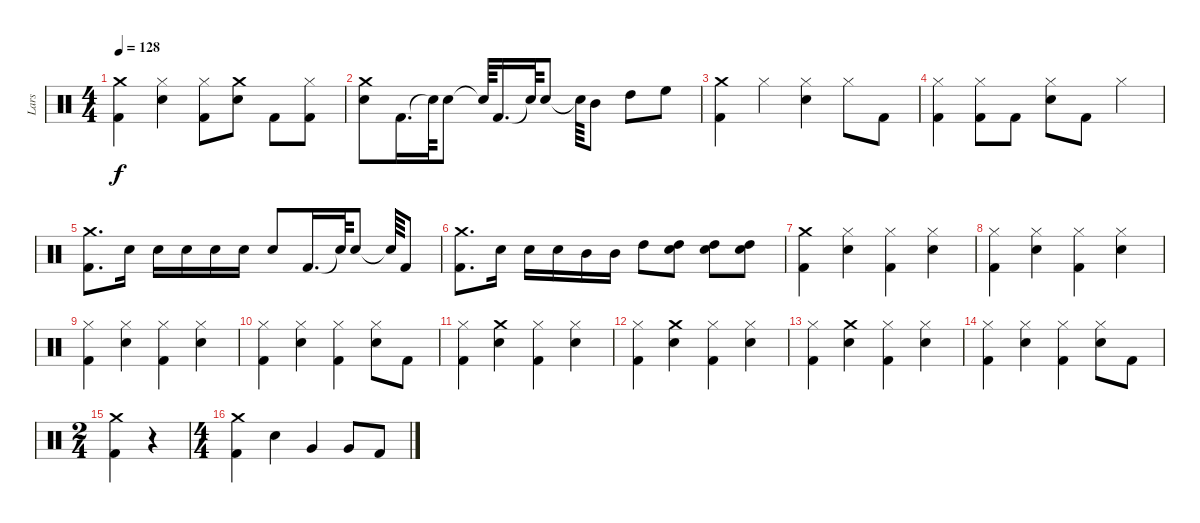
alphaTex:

\track ("Lars" "Lars") {instrument percussion}
\staff {score}
\articulation defaults
\ts (4 4)
\tempo 128
\clef neutral
\ks c
("Crash medium (hit)" "Kick (hit) 2").4{dy f} ("Snare (hit) 2" "Hi-Hat (closed)").4 ("Kick (hit) 2" "Hi-Hat (closed)").8 ("Crash medium (hit)" "Snare (hit) 2").8 "Kick (hit) 2".8 ("Hi-Hat (closed)" "Kick (hit) 2").8 |
("Crash medium (hit)" "Snare (hit) 2").8 "Kick (hit) 2".16{d} "Snare (hit)"{t}.64 "Snare (hit) 2".8 "Snare (hit)"{t}.64 "Kick (hit) 2".16{d} "Snare (hit)"{t}.64 "Snare (hit) 2".8 "Snare (hit)"{t}.64 "Mid Tom (hit)".8 "High Tom (hit)".8 "High Floor Tom (hit)".8 |
("Kick (hit) 2" "Crash medium (hit)").4 "Hi-Hat (closed)".4 ("Snare (hit) 2" "Hi-Hat (closed)").4 "Hi-Hat (closed)".8 "Kick (hit) 2".8 |
("Kick (hit) 2" "Hi-Hat (closed)").4 ("Kick (hit) 2" "Hi-Hat (closed)").8 "Kick (hit) 2".8 ("Snare (hit) 2" "Hi-Hat (closed)").8 "Kick (hit) 2".8 "Hi-Hat (closed)".4 |
("Kick (hit) 2" "Crash medium (hit)").8{d} "Snare (hit) 2".16 "Snare (hit) 2".16 "Snare (hit) 2".16 "Snare (hit) 2".16 "Snare (hit) 2".16 "Snare (hit) 2".8 "Kick (hit) 2".16{d} "Snare (hit)"{t}.64 "Snare (hit) 2".8 "Snare (hit)"{t}.64 "Kick (hit) 2".8 |
("Kick (hit) 2" "Crash medium (hit)").8{d} "Snare (hit) 2".16 "Snare (hit) 2".16 "Snare (hit) 2".16 "Mid Tom (hit)".16 "Mid Tom (hit)".16 "High Tom (hit)".8 ("Snare (hit) 2" "High Tom (hit)").8 ("Snare (hit) 2" "High Tom (hit)").8 ("Snare (hit) 2" "High Tom (hit)").8 |
("Kick (hit) 2" "Crash medium (hit)").4 ("Hi-Hat (closed)" "Snare (hit) 2").4 ("Hi-Hat (closed)" "Kick (hit) 2").4 ("Snare (hit) 2" "Hi-Hat (closed)").4 |
("Hi-Hat (closed)" "Kick (hit) 2").4 ("Snare (hit) 2" "Hi-Hat (closed)").4 ("Kick (hit) 2" "Hi-Hat (closed)").4 ("Snare (hit) 2" "Hi-Hat (closed)").4 |
("Hi-Hat (closed)" "Kick (hit) 2").4 ("Snare (hit) 2" "Hi-Hat (closed)").4 ("Kick (hit) 2" "Hi-Hat (closed)").4 ("Snare (hit) 2" "Hi-Hat (closed)").4 |
("Kick (hit) 2" "Hi-Hat (closed)").4 ("Snare (hit) 2" "Hi-Hat (closed)").4 ("Kick (hit) 2" "Hi-Hat (closed)").4 ("Snare (hit) 2" "Hi-Hat (closed)").8 "Kick (hit) 2".8 |
("Kick (hit) 2" "Hi-Hat (closed)").4 ("Crash medium (hit)" "Snare (hit) 2").4 ("Hi-Hat (closed)" "Kick (hit) 2").4 ("Snare (hit) 2" "Hi-Hat (closed)").4 |
("Kick (hit) 2" "Hi-Hat (closed)").4 ("Crash medium (hit)" "Snare (hit) 2").4 ("Hi-Hat (closed)" "Kick (hit) 2").4 ("Snare (hit) 2" "Hi-Hat (closed)").4 |
("Kick (hit) 2" "Hi-Hat (closed)").4 ("Crash medium (hit)" "Snare (hit) 2").4 ("Hi-Hat (closed)" "Kick (hit) 2").4 ("Snare (hit) 2" "Hi-Hat (closed)").4 |
("Kick (hit) 2" "Hi-Hat (closed)").4 ("Hi-Hat (closed)" "Snare (hit) 2").4 ("Hi-Hat (closed)" "Kick (hit) 2").4 ("Hi-Hat (closed)" "Snare (hit) 2").8 "Kick (hit) 2".8 |
\ts (2 4)
("Crash medium (hit)" "Kick (hit) 2").4 r.4 |
\ts (4 4)
("Crash medium (hit)" "Kick (hit) 2").4 "Snare (hit) 2".4 "Very Low Tom (hit)".4 "Very Low Tom (hit)".8 "Kick (hit) 2".8
